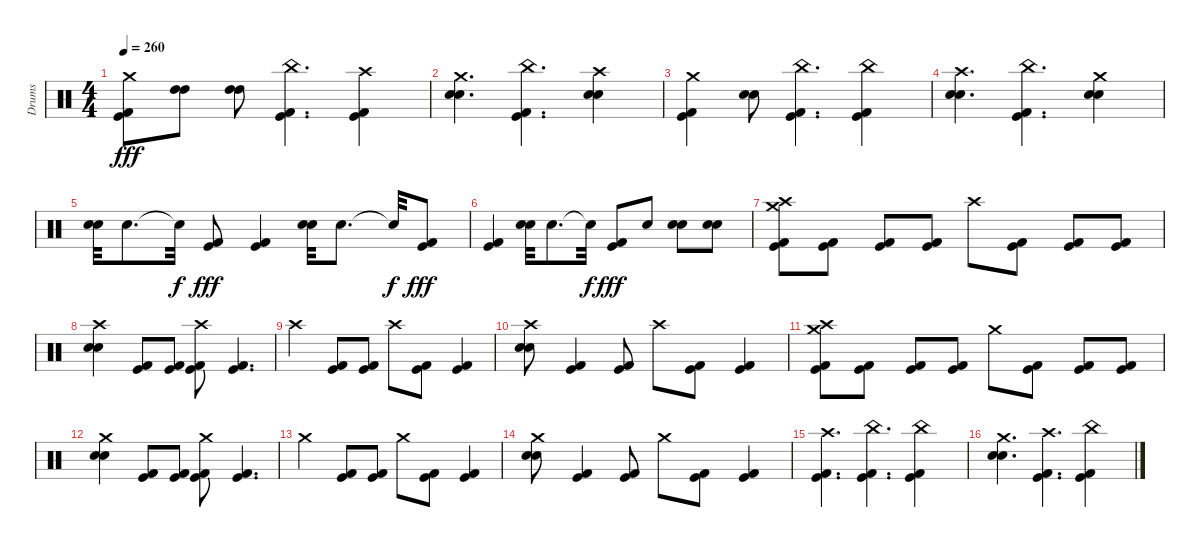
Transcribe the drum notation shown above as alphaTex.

\track ("Drums" "Drums") {instrument percussion}
\staff {score}
\articulation defaults
\ts (4 4)
\tempo 260
\clef neutral
\ks c
("Kick (hit)" "Kick (hit) 2" "Crash medium (hit)").8{dy fff} ("High Tom (hit)" "High Tom (hit)").8 ("High Tom (hit)" "High Tom (hit)").8 ("Kick (hit)" "Kick (hit) 2" "China (hit)").4{d} ("Kick (hit)" "Kick (hit) 2" "Crash high (hit)").4 |
("Electric Snare (hit)" "Electric Snare (hit)" "Crash medium (hit)").4{d} ("Kick (hit)" "Kick (hit) 2" "China (hit)").4{d} ("Electric Snare (hit)" "Electric Snare (hit)" "Crash high (hit)").4 |
("Kick (hit)" "Kick (hit) 2" "Crash medium (hit)").4 ("Electric Snare (hit)" "Electric Snare (hit)").8 ("Kick (hit)" "Kick (hit) 2" "China (hit)").4{d} ("Kick (hit)" "Kick (hit) 2" "China (hit)").4 |
("Electric Snare (hit)" "Electric Snare (hit)" "Crash high (hit)").4{d} ("Kick (hit)" "Kick (hit) 2" "China (hit)").4{d} ("Electric Snare (hit)" "Electric Snare (hit)" "Crash medium (hit)").4 |
("Electric Snare (hit)" "Electric Snare (hit)").32 "Electric Snare (hit)".8{d} "Snare (hit)"{t}.32{dy f} ("Kick (hit)" "Kick (hit) 2").8{dy fff} ("Kick (hit)" "Kick (hit) 2").4 ("Electric Snare (hit)" "Electric Snare (hit)").32 "Electric Snare (hit)".8{d} "Snare (hit)"{t}.32{dy f} ("Kick (hit)" "Kick (hit) 2").8{dy fff} |
("Kick (hit)" "Kick (hit) 2").4 ("Electric Snare (hit)" "Electric Snare (hit)").32 "Electric Snare (hit)".8{d} "Snare (hit)"{t}.32{dy f} ("Kick (hit)" "Kick (hit) 2").8{dy fff} "Electric Snare (hit)".8 ("Electric Snare (hit)" "Electric Snare (hit)").8 ("Electric Snare (hit)" "Electric Snare (hit)").8 |
("Kick (hit)" "Kick (hit) 2" "Crash medium (hit)" "Crash high (hit)").8 ("Kick (hit)" "Kick (hit) 2").8 ("Kick (hit)" "Kick (hit) 2").8 ("Kick (hit)" "Kick (hit) 2").8 "Crash high (hit)".8 ("Kick (hit)" "Kick (hit) 2").8 ("Kick (hit)" "Kick (hit) 2").8 ("Kick (hit)" "Kick (hit) 2").8 |
("Electric Snare (hit)" "Electric Snare (hit)" "Crash high (hit)").4 ("Kick (hit)" "Kick (hit) 2").8 ("Kick (hit)" "Kick (hit) 2").8 ("Kick (hit)" "Kick (hit) 2" "Crash high (hit)").8 ("Kick (hit)" "Kick (hit) 2").4{d} |
"Crash high (hit)".4 ("Kick (hit)" "Kick (hit) 2").8 ("Kick (hit)" "Kick (hit) 2").8 "Crash high (hit)".8 ("Kick (hit)" "Kick (hit) 2").8 ("Kick (hit)" "Kick (hit) 2").4 |
("Electric Snare (hit)" "Electric Snare (hit)" "Crash high (hit)").8 ("Kick (hit)" "Kick (hit) 2").4 ("Kick (hit)" "Kick (hit) 2").8 "Crash high (hit)".8 ("Kick (hit)" "Kick (hit) 2").8 ("Kick (hit)" "Kick (hit) 2").4 |
("Kick (hit)" "Kick (hit) 2" "Crash medium (hit)" "Crash high (hit)").8 ("Kick (hit)" "Kick (hit) 2").8 ("Kick (hit)" "Kick (hit) 2").8 ("Kick (hit)" "Kick (hit) 2").8 "Crash medium (hit)".8 ("Kick (hit)" "Kick (hit) 2").8 ("Kick (hit)" "Kick (hit) 2").8 ("Kick (hit)" "Kick (hit) 2").8 |
("Electric Snare (hit)" "Electric Snare (hit)" "Crash medium (hit)").4 ("Kick (hit)" "Kick (hit) 2").8 ("Kick (hit)" "Kick (hit) 2").8 ("Kick (hit)" "Kick (hit) 2" "Crash medium (hit)").8 ("Kick (hit)" "Kick (hit) 2").4{d} |
"Crash medium (hit)".4 ("Kick (hit)" "Kick (hit) 2").8 ("Kick (hit)" "Kick (hit) 2").8 "Crash medium (hit)".8 ("Kick (hit)" "Kick (hit) 2").8 ("Kick (hit)" "Kick (hit) 2").4 |
("Electric Snare (hit)" "Electric Snare (hit)" "Crash medium (hit)").8 ("Kick (hit)" "Kick (hit) 2").4 ("Kick (hit)" "Kick (hit) 2").8 "Crash medium (hit)".8 ("Kick (hit)" "Kick (hit) 2").8 ("Kick (hit)" "Kick (hit) 2").4 |
("Kick (hit)" "Kick (hit) 2" "Crash high (hit)").4{d} ("Kick (hit)" "Kick (hit) 2" "China (hit)").4{d} ("Kick (hit)" "Kick (hit) 2" "China (hit)").4 |
("Electric Snare (hit)" "Electric Snare (hit)" "Crash medium (hit)").4{d} ("Kick (hit)" "Kick (hit) 2" "Crash high (hit)").4{d} ("Kick (hit)" "Kick (hit) 2" "China (hit)").4
